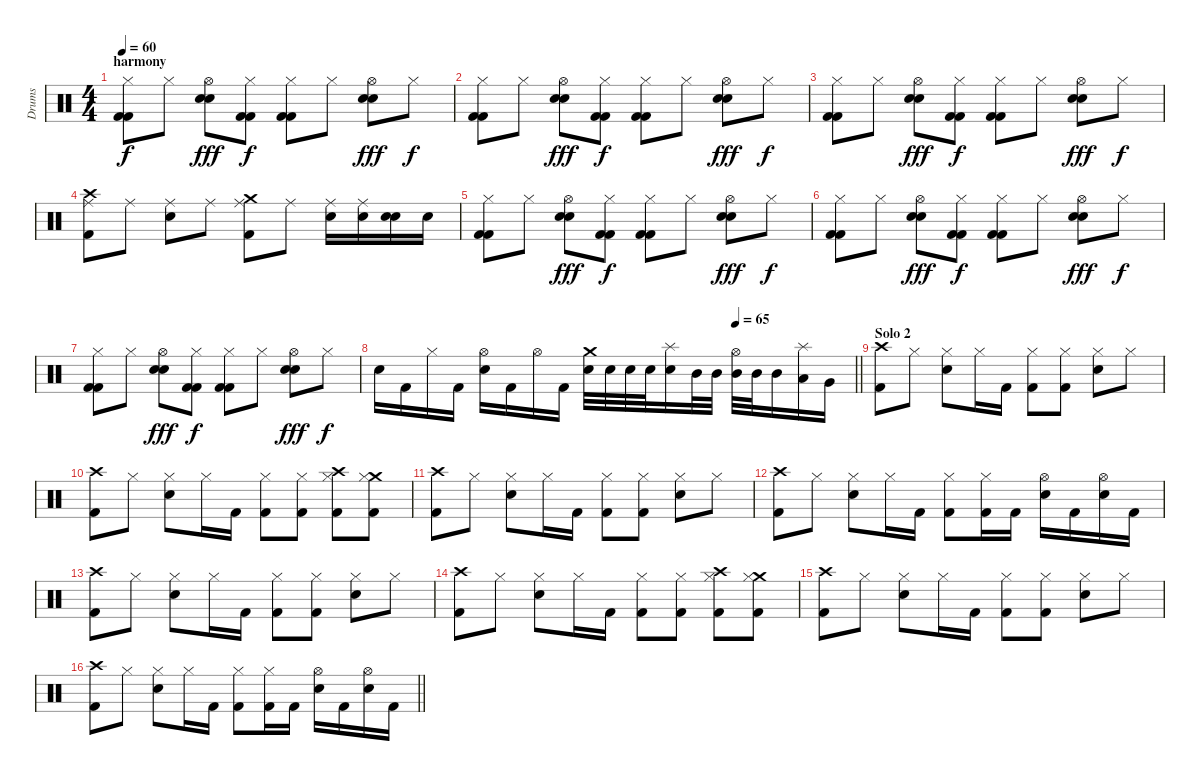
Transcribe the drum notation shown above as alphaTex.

\track ("Drums" "Drums") {instrument percussion}
\staff {score}
\articulation defaults
\ts (4 4)
\section ("" "harmony")
\tempo 60
\clef neutral
\ks c
("Hi-Hat (closed)" "Kick (hit) 2" "Kick (hit) 2").8{dy f} "Hi-Hat (closed)".8 ("Hi-Hat (open)" "Electric Snare (hit)" "Electric Snare (hit)").8{dy fff} ("Hi-Hat (closed)" "Kick (hit) 2" "Kick (hit) 2").8{dy f} ("Hi-Hat (closed)" "Kick (hit) 2" "Kick (hit) 2").8 "Hi-Hat (closed)".8 ("Hi-Hat (open)" "Electric Snare (hit)" "Electric Snare (hit)").8{dy fff} "Hi-Hat (closed)".8{dy f} |
("Hi-Hat (closed)" "Kick (hit) 2" "Kick (hit) 2").8 "Hi-Hat (closed)".8 ("Hi-Hat (open)" "Electric Snare (hit)" "Electric Snare (hit)").8{dy fff} ("Hi-Hat (closed)" "Kick (hit) 2" "Kick (hit) 2").8{dy f} ("Hi-Hat (closed)" "Kick (hit) 2" "Kick (hit) 2").8 "Hi-Hat (closed)".8 ("Hi-Hat (open)" "Electric Snare (hit)" "Electric Snare (hit)").8{dy fff} "Hi-Hat (closed)".8{dy f} |
("Hi-Hat (closed)" "Kick (hit) 2" "Kick (hit) 2").8 "Hi-Hat (closed)".8 ("Hi-Hat (open)" "Electric Snare (hit)" "Electric Snare (hit)").8{dy fff} ("Hi-Hat (closed)" "Kick (hit) 2" "Kick (hit) 2").8{dy f} ("Hi-Hat (closed)" "Kick (hit) 2" "Kick (hit) 2").8 "Hi-Hat (closed)".8 ("Hi-Hat (open)" "Electric Snare (hit)" "Electric Snare (hit)").8{dy fff} "Hi-Hat (closed)".8{dy f} |
("Kick (hit) 2" "Crash high (hit)" "Ride (middle)").8 "Ride (middle)".8 ("Electric Snare (hit)" "Ride (middle)").8 "Ride (middle)".8 ("Kick (hit) 2" "Crash medium (hit)" "Ride (middle)").8 "Ride (middle)".8 ("Electric Snare (hit)" "Ride (middle)").16 ("Electric Snare (hit)" "Ride (middle)").16 ("Electric Snare (hit)" "Electric Snare (hit)").16 "Electric Snare (hit)".16 |
("Hi-Hat (closed)" "Kick (hit) 2" "Kick (hit) 2").8 "Hi-Hat (closed)".8 ("Hi-Hat (open)" "Electric Snare (hit)" "Electric Snare (hit)").8{dy fff} ("Hi-Hat (closed)" "Kick (hit) 2" "Kick (hit) 2").8{dy f} ("Hi-Hat (closed)" "Kick (hit) 2" "Kick (hit) 2").8 "Hi-Hat (closed)".8 ("Hi-Hat (open)" "Electric Snare (hit)" "Electric Snare (hit)").8{dy fff} "Hi-Hat (closed)".8{dy f} |
("Hi-Hat (closed)" "Kick (hit) 2" "Kick (hit) 2").8 "Hi-Hat (closed)".8 ("Hi-Hat (open)" "Electric Snare (hit)" "Electric Snare (hit)").8{dy fff} ("Hi-Hat (closed)" "Kick (hit) 2" "Kick (hit) 2").8{dy f} ("Hi-Hat (closed)" "Kick (hit) 2" "Kick (hit) 2").8 "Hi-Hat (closed)".8 ("Hi-Hat (open)" "Electric Snare (hit)" "Electric Snare (hit)").8{dy fff} "Hi-Hat (closed)".8{dy f} |
("Hi-Hat (closed)" "Kick (hit) 2" "Kick (hit) 2").8 "Hi-Hat (closed)".8 ("Hi-Hat (open)" "Electric Snare (hit)" "Electric Snare (hit)").8{dy fff} ("Hi-Hat (closed)" "Kick (hit) 2" "Kick (hit) 2").8{dy f} ("Hi-Hat (closed)" "Kick (hit) 2" "Kick (hit) 2").8 "Hi-Hat (closed)".8 ("Hi-Hat (open)" "Electric Snare (hit)" "Electric Snare (hit)").8{dy fff} "Hi-Hat (closed)".8{dy f} |
\tempo (65 0.75)
\barLineRight lightlight "Snare (hit) 2".16 "Kick (hit) 2".16 "Hi-Hat (closed)".16 "Kick (hit) 2".16
("Hi-Hat (open)" "Snare (hit) 2").16 "Kick (hit) 2".16 "Hi-Hat (open)".16 "Kick (hit) 2".16 ("Crash medium (hit)" "Snare (hit) 2").32 "Snare (hit) 2".32 "Snare (hit) 2".32 "Snare (hit) 2".32 ("Splash (hit)" "Snare (hit) 2").16 "Mid Tom (hit)".32 "Mid Tom (hit)".32 ("Hi-Hat (open)" "Mid Tom (hit)").32 "Mid Tom (hit)".32 "Mid Tom (hit)".16 ("Splash (hit)" "Low Tom (hit)").16 "Very Low Tom (hit)".16 |
\section ("" "Solo 2")
("Crash high (hit)" "Kick (hit) 2").8 "Hi-Hat (closed)".8 ("Hi-Hat (closed)" "Snare (hit) 2").8 "Hi-Hat (closed)".16 "Kick (hit) 2".16 ("Hi-Hat (closed)" "Kick (hit) 2").8 ("Hi-Hat (closed)" "Kick (hit) 2").8 ("Hi-Hat (closed)" "Snare (hit) 2").8 "Hi-Hat (closed)".8 |
("Crash high (hit)" "Kick (hit) 2").8 "Hi-Hat (closed)".8 ("Hi-Hat (closed)" "Snare (hit) 2").8 "Hi-Hat (closed)".16 "Kick (hit) 2".16 ("Hi-Hat (closed)" "Kick (hit) 2").8 ("Hi-Hat (closed)" "Kick (hit) 2").8 ("Crash high (hit)" "Hi-Hat (closed)" "Kick (hit) 2").8 ("Crash medium (hit)" "Hi-Hat (closed)" "Kick (hit) 2").8 |
("Crash high (hit)" "Kick (hit) 2").8 "Hi-Hat (closed)".8 ("Hi-Hat (closed)" "Snare (hit) 2").8 "Hi-Hat (closed)".16 "Kick (hit) 2".16 ("Hi-Hat (closed)" "Kick (hit) 2").8 ("Hi-Hat (closed)" "Kick (hit) 2").8 ("Hi-Hat (closed)" "Snare (hit) 2").8 "Hi-Hat (closed)".8 |
("Crash high (hit)" "Kick (hit) 2").8 "Hi-Hat (closed)".8 ("Hi-Hat (closed)" "Snare (hit) 2").8 "Hi-Hat (closed)".16 "Kick (hit) 2".16 ("Hi-Hat (closed)" "Kick (hit) 2").8 ("Hi-Hat (closed)" "Kick (hit) 2").16 "Kick (hit) 2".16 ("Hi-Hat (open)" "Snare (hit) 2").16 "Kick (hit) 2".16 ("Hi-Hat (open)" "Snare (hit) 2").16 "Kick (hit) 2".16 |
("Crash high (hit)" "Kick (hit) 2").8 "Hi-Hat (closed)".8 ("Hi-Hat (closed)" "Snare (hit) 2").8 "Hi-Hat (closed)".16 "Kick (hit) 2".16 ("Hi-Hat (closed)" "Kick (hit) 2").8 ("Hi-Hat (closed)" "Kick (hit) 2").8 ("Hi-Hat (closed)" "Snare (hit) 2").8 "Hi-Hat (closed)".8 |
("Crash high (hit)" "Kick (hit) 2").8 "Hi-Hat (closed)".8 ("Hi-Hat (closed)" "Snare (hit) 2").8 "Hi-Hat (closed)".16 "Kick (hit) 2".16 ("Hi-Hat (closed)" "Kick (hit) 2").8 ("Hi-Hat (closed)" "Kick (hit) 2").8 ("Crash high (hit)" "Hi-Hat (closed)" "Kick (hit) 2").8 ("Crash medium (hit)" "Hi-Hat (closed)" "Kick (hit) 2").8 |
("Crash high (hit)" "Kick (hit) 2").8 "Hi-Hat (closed)".8 ("Hi-Hat (closed)" "Snare (hit) 2").8 "Hi-Hat (closed)".16 "Kick (hit) 2".16 ("Hi-Hat (closed)" "Kick (hit) 2").8 ("Hi-Hat (closed)" "Kick (hit) 2").8 ("Hi-Hat (closed)" "Snare (hit) 2").8 "Hi-Hat (closed)".8 |
\barLineRight lightlight
("Crash high (hit)" "Kick (hit) 2").8 "Hi-Hat (closed)".8 ("Hi-Hat (closed)" "Snare (hit) 2").8 "Hi-Hat (closed)".16 "Kick (hit) 2".16 ("Hi-Hat (closed)" "Kick (hit) 2").8 ("Hi-Hat (closed)" "Kick (hit) 2").16 "Kick (hit) 2".16 ("Hi-Hat (open)" "Snare (hit) 2").16 "Kick (hit) 2".16 ("Hi-Hat (open)" "Snare (hit) 2").16 "Kick (hit) 2".16
